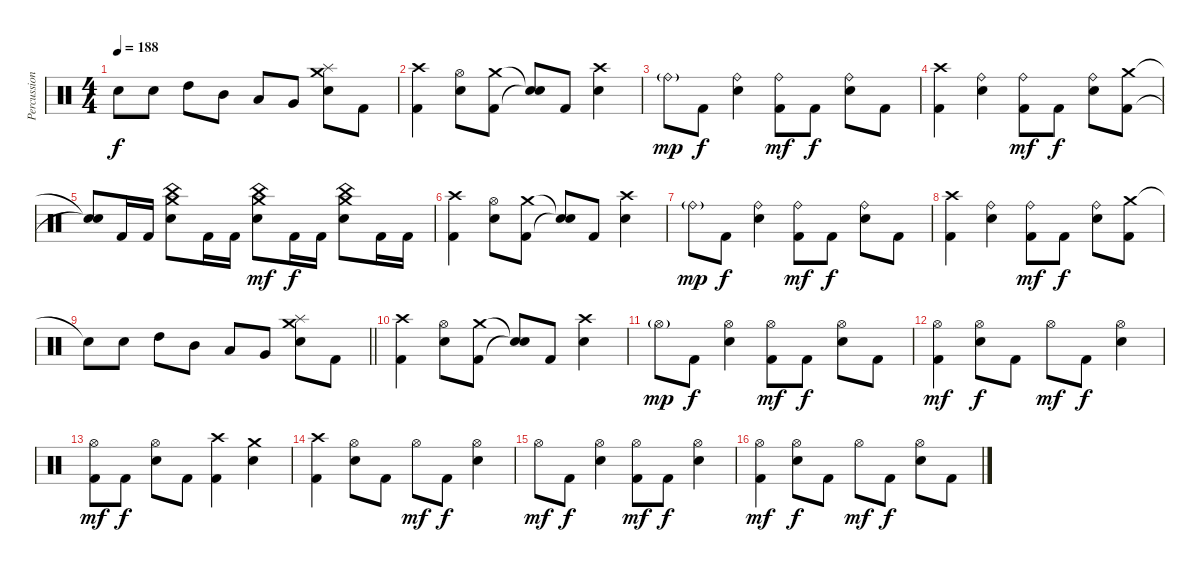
\track ("Percussion" "Percussion") {instrument percussion}
\staff {score}
\articulation defaults
\ts (4 4)
\tempo 188
\clef neutral
\ks c "Snare (hit)"{t}.8{dy f} "Electric Snare (hit)".8 "High Tom (hit)".8 "Mid Tom (hit)".8 "Low Tom (hit)".8 "Very Low Tom (hit)".8
("Splash (hit)" "Crash medium (hit)" "Electric Snare (hit)").8 "Kick (hit) 2".8 |
("Crash high (hit)" "Kick (hit) 2").4 ("Hi-Hat (open)" "Electric Snare (hit)").8 ("Crash medium (hit)" "Kick (hit) 2").8 ("Snare (hit)"{t} "Snare (hit)"{t}).8 "Kick (hit) 2".8 ("Crash high (hit)" "Electric Snare (hit)").4 |
"Ride (bell)"{g}.8{dy mp} "Kick (hit) 2".8{dy f} ("Ride (bell)" "Electric Snare (hit)").4 ("Ride (bell)" "Kick (hit) 2").8{dy mf} "Kick (hit) 2".8{dy f} ("Ride (bell)" "Electric Snare (hit)").8 "Kick (hit) 2".8 |
("Crash high (hit)" "Kick (hit) 2").4 ("Ride (bell)" "Electric Snare (hit)").4 ("Ride (bell)" "Kick (hit) 2").8{dy mf} "Kick (hit) 2".8{dy f} ("Ride (bell)" "Electric Snare (hit)").8 ("Crash medium (hit)" "Kick (hit) 2").8 |
("Snare (hit)"{t} "Snare (hit)"{t}).8 "Kick (hit) 2".16 "Kick (hit) 2".16 ("China (hit)" "Crash medium (hit)" "Electric Snare (hit)").8 "Kick (hit) 2".16 "Kick (hit) 2".16 ("China (hit)" "Crash medium (hit)" "Electric Snare (hit)").8{dy mf} "Kick (hit) 2".16{dy f} "Kick (hit) 2".16 ("China (hit)" "Crash medium (hit)" "Electric Snare (hit)").8 "Kick (hit) 2".16 "Kick (hit) 2".16 |
("Crash high (hit)" "Kick (hit) 2").4 ("Hi-Hat (open)" "Electric Snare (hit)").8 ("Crash medium (hit)" "Kick (hit) 2").8 ("Snare (hit)"{t} "Snare (hit)"{t}).8 "Kick (hit) 2".8 ("Crash high (hit)" "Electric Snare (hit)").4 |
"Ride (bell)"{g}.8{dy mp} "Kick (hit) 2".8{dy f} ("Ride (bell)" "Electric Snare (hit)").4 ("Ride (bell)" "Kick (hit) 2").8{dy mf} "Kick (hit) 2".8{dy f} ("Ride (bell)" "Electric Snare (hit)").8 "Kick (hit) 2".8 |
("Crash high (hit)" "Kick (hit) 2").4 ("Ride (bell)" "Electric Snare (hit)").4 ("Ride (bell)" "Kick (hit) 2").8{dy mf} "Kick (hit) 2".8{dy f} ("Ride (bell)" "Electric Snare (hit)").8 ("Crash medium (hit)" "Kick (hit) 2").8 |
\barLineRight lightlight "Snare (hit)"{t}.8 "Electric Snare (hit)".8 "High Tom (hit)".8 "Mid Tom (hit)".8 "Low Tom (hit)".8 "Very Low Tom (hit)".8
("Splash (hit)" "Crash medium (hit)" "Electric Snare (hit)").8 "Kick (hit) 2".8 |
("Crash high (hit)" "Kick (hit) 2").4 ("Hi-Hat (open)" "Electric Snare (hit)").8 ("Crash medium (hit)" "Kick (hit) 2").8 ("Snare (hit)"{t} "Snare (hit)"{t}).8 "Kick (hit) 2".8 ("Crash high (hit)" "Electric Snare (hit)").4 |
"Hi-Hat (open)"{g}.8{dy mp} "Kick (hit) 2".8{dy f} ("Hi-Hat (open)" "Electric Snare (hit)").4 ("Hi-Hat (open)" "Kick (hit) 2").8{dy mf} "Kick (hit) 2".8{dy f} ("Hi-Hat (open)" "Electric Snare (hit)").8 "Kick (hit) 2".8 |
("Hi-Hat (open)" "Kick (hit) 2").4{dy mf} ("Hi-Hat (open)" "Electric Snare (hit)").8{dy f} "Kick (hit) 2".8 "Hi-Hat (open)".8{dy mf} "Kick (hit) 2".8{dy f} ("Hi-Hat (open)" "Electric Snare (hit)").4 |
("Hi-Hat (open)" "Kick (hit) 2").8{dy mf} "Kick (hit) 2".8{dy f} ("Hi-Hat (open)" "Electric Snare (hit)").8 "Kick (hit) 2".8 ("Crash high (hit)" "Kick (hit) 2").4 ("Crash medium (hit)" "Electric Snare (hit)").4 |
("Crash high (hit)" "Kick (hit) 2").4 ("Hi-Hat (open)" "Electric Snare (hit)").8 "Kick (hit) 2".8 "Hi-Hat (open)".8{dy mf} "Kick (hit) 2".8{dy f} ("Hi-Hat (open)" "Electric Snare (hit)").4 |
"Hi-Hat (open)".8{dy mf} "Kick (hit) 2".8{dy f} ("Hi-Hat (open)" "Electric Snare (hit)").4 ("Hi-Hat (open)" "Kick (hit) 2").8{dy mf} "Kick (hit) 2".8{dy f} ("Hi-Hat (open)" "Electric Snare (hit)").4 |
("Hi-Hat (open)" "Kick (hit) 2").4{dy mf} ("Hi-Hat (open)" "Electric Snare (hit)").8{dy f} "Kick (hit) 2".8 "Hi-Hat (open)".8{dy mf} "Kick (hit) 2".8{dy f} ("Hi-Hat (open)" "Electric Snare (hit)").8 "Kick (hit) 2".8
